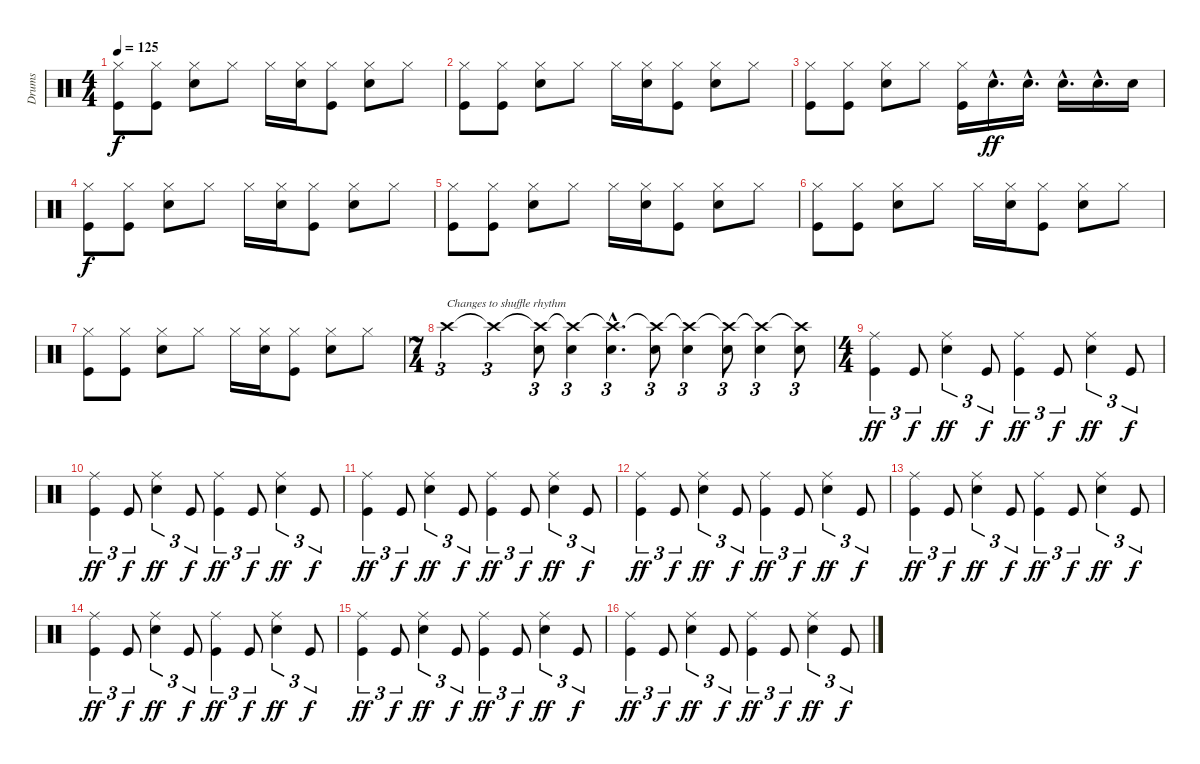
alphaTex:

\track ("Drums" "Drums") {instrument percussion}
\staff {score}
\articulation defaults
\ts (4 4)
\tempo 125
\clef neutral
\ks c
("Hi-Hat (closed)" "Kick (hit)").8{dy f} ("Hi-Hat (closed)" "Kick (hit)").8 ("Hi-Hat (closed)" "Snare (hit) 2").8 "Hi-Hat (closed)".8 "Hi-Hat (closed)".16 ("Hi-Hat (closed)" "Snare (hit) 2").16 ("Hi-Hat (closed)" "Kick (hit)").8 ("Hi-Hat (closed)" "Snare (hit) 2").8 "Hi-Hat (closed)".8 |
("Hi-Hat (closed)" "Kick (hit)").8 ("Hi-Hat (closed)" "Kick (hit)").8 ("Hi-Hat (closed)" "Snare (hit) 2").8 "Hi-Hat (closed)".8 "Hi-Hat (closed)".16 ("Hi-Hat (closed)" "Snare (hit) 2").16 ("Hi-Hat (closed)" "Kick (hit)").8 ("Hi-Hat (closed)" "Snare (hit) 2").8 "Hi-Hat (closed)".8 |
("Hi-Hat (closed)" "Kick (hit)").8 ("Hi-Hat (closed)" "Kick (hit)").8 ("Hi-Hat (closed)" "Snare (hit) 2").8 "Hi-Hat (closed)".8 ("Hi-Hat (closed)" "Kick (hit)").16 "Snare (hit) 2"{hac}.16{d dy ff} "Snare (hit) 2"{hac}.16{d} "Snare (hit) 2"{hac}.16{d} "Snare (hit) 2"{hac}.16{d} "Snare (hit) 2".16 |
("Hi-Hat (closed)" "Kick (hit)").8{dy f} ("Hi-Hat (closed)" "Kick (hit)").8 ("Hi-Hat (closed)" "Snare (hit) 2").8 "Hi-Hat (closed)".8 "Hi-Hat (closed)".16 ("Hi-Hat (closed)" "Snare (hit) 2").16 ("Hi-Hat (closed)" "Kick (hit)").8 ("Hi-Hat (closed)" "Snare (hit) 2").8 "Hi-Hat (closed)".8 |
("Hi-Hat (closed)" "Kick (hit)").8 ("Hi-Hat (closed)" "Kick (hit)").8 ("Hi-Hat (closed)" "Snare (hit) 2").8 "Hi-Hat (closed)".8 "Hi-Hat (closed)".16 ("Hi-Hat (closed)" "Snare (hit) 2").16 ("Hi-Hat (closed)" "Kick (hit)").8 ("Hi-Hat (closed)" "Snare (hit) 2").8 "Hi-Hat (closed)".8 |
("Hi-Hat (closed)" "Kick (hit)").8 ("Hi-Hat (closed)" "Kick (hit)").8 ("Hi-Hat (closed)" "Snare (hit) 2").8 "Hi-Hat (closed)".8 "Hi-Hat (closed)".16 ("Hi-Hat (closed)" "Snare (hit) 2").16 ("Hi-Hat (closed)" "Kick (hit)").8 ("Hi-Hat (closed)" "Snare (hit) 2").8 "Hi-Hat (closed)".8 |
("Hi-Hat (closed)" "Kick (hit)").8 ("Hi-Hat (closed)" "Kick (hit)").8 ("Hi-Hat (closed)" "Snare (hit) 2").8 "Hi-Hat (closed)".8 "Hi-Hat (closed)".16 ("Hi-Hat (closed)" "Snare (hit) 2").16 ("Hi-Hat (closed)" "Kick (hit)").8 ("Hi-Hat (closed)" "Snare (hit) 2").8 "Hi-Hat (closed)".8 |
\ts (7 4)
"Crash high (hit)".2{tu (3 2) txt "Changes to shuffle rhythm"} "Crash high (hit)"{t}.2{tu (3 2)} ("Crash high (hit)"{t} "Snare (hit) 2").8{tu (3 2)} ("Crash high (hit)"{t} "Electric Snare (hit)").4{tu (3 2)} ("Crash high (hit)"{hac t} "Electric Snare (hit)"{hac}).4{d tu (3 2)} ("Crash high (hit)"{t} "Snare (hit) 2").8{tu (3 2)} ("Crash high (hit)"{t} "Electric Snare (hit)").4{tu (3 2)} ("Crash high (hit)"{t} "Snare (hit) 2").8{tu (3 2)} ("Crash high (hit)"{t} "Electric Snare (hit)").4{tu (3 2)} ("Crash high (hit)"{t} "Snare (hit) 2").8{tu (3 2)} |
\ts (4 4)
("Ride (middle)" "Kick (hit)").4{tu (3 2) dy ff} "Kick (hit)".8{tu (3 2) dy f} ("Ride (middle)" "Snare (hit) 2").4{tu (3 2) dy ff} "Kick (hit)".8{tu (3 2) dy f} ("Ride (middle)" "Kick (hit)").4{tu (3 2) dy ff} "Kick (hit)".8{tu (3 2) dy f} ("Ride (middle)" "Snare (hit) 2").4{tu (3 2) dy ff} "Kick (hit)".8{tu (3 2) dy f} |
("Ride (middle)" "Kick (hit)").4{tu (3 2) dy ff} "Kick (hit)".8{tu (3 2) dy f} ("Ride (middle)" "Snare (hit) 2").4{tu (3 2) dy ff} "Kick (hit)".8{tu (3 2) dy f} ("Ride (middle)" "Kick (hit)").4{tu (3 2) dy ff} "Kick (hit)".8{tu (3 2) dy f} ("Ride (middle)" "Snare (hit) 2").4{tu (3 2) dy ff} "Kick (hit)".8{tu (3 2) dy f} |
("Ride (middle)" "Kick (hit)").4{tu (3 2) dy ff} "Kick (hit)".8{tu (3 2) dy f} ("Ride (middle)" "Snare (hit) 2").4{tu (3 2) dy ff} "Kick (hit)".8{tu (3 2) dy f} ("Ride (middle)" "Kick (hit)").4{tu (3 2) dy ff} "Kick (hit)".8{tu (3 2) dy f} ("Ride (middle)" "Snare (hit) 2").4{tu (3 2) dy ff} "Kick (hit)".8{tu (3 2) dy f} |
("Ride (middle)" "Kick (hit)").4{tu (3 2) dy ff} "Kick (hit)".8{tu (3 2) dy f} ("Ride (middle)" "Snare (hit) 2").4{tu (3 2) dy ff} "Kick (hit)".8{tu (3 2) dy f} ("Ride (middle)" "Kick (hit)").4{tu (3 2) dy ff} "Kick (hit)".8{tu (3 2) dy f} ("Ride (middle)" "Snare (hit) 2").4{tu (3 2) dy ff} "Kick (hit)".8{tu (3 2) dy f} |
("Ride (middle)" "Kick (hit)").4{tu (3 2) dy ff} "Kick (hit)".8{tu (3 2) dy f} ("Ride (middle)" "Snare (hit) 2").4{tu (3 2) dy ff} "Kick (hit)".8{tu (3 2) dy f} ("Ride (middle)" "Kick (hit)").4{tu (3 2) dy ff} "Kick (hit)".8{tu (3 2) dy f} ("Ride (middle)" "Snare (hit) 2").4{tu (3 2) dy ff} "Kick (hit)".8{tu (3 2) dy f} |
("Ride (middle)" "Kick (hit)").4{tu (3 2) dy ff} "Kick (hit)".8{tu (3 2) dy f} ("Ride (middle)" "Snare (hit) 2").4{tu (3 2) dy ff} "Kick (hit)".8{tu (3 2) dy f} ("Ride (middle)" "Kick (hit)").4{tu (3 2) dy ff} "Kick (hit)".8{tu (3 2) dy f} ("Ride (middle)" "Snare (hit) 2").4{tu (3 2) dy ff} "Kick (hit)".8{tu (3 2) dy f} |
("Ride (middle)" "Kick (hit)").4{tu (3 2) dy ff} "Kick (hit)".8{tu (3 2) dy f} ("Ride (middle)" "Snare (hit) 2").4{tu (3 2) dy ff} "Kick (hit)".8{tu (3 2) dy f} ("Ride (middle)" "Kick (hit)").4{tu (3 2) dy ff} "Kick (hit)".8{tu (3 2) dy f} ("Ride (middle)" "Snare (hit) 2").4{tu (3 2) dy ff} "Kick (hit)".8{tu (3 2) dy f} |
("Ride (middle)" "Kick (hit)").4{tu (3 2) dy ff} "Kick (hit)".8{tu (3 2) dy f} ("Ride (middle)" "Snare (hit) 2").4{tu (3 2) dy ff} "Kick (hit)".8{tu (3 2) dy f} ("Ride (middle)" "Kick (hit)").4{tu (3 2) dy ff} "Kick (hit)".8{tu (3 2) dy f} ("Ride (middle)" "Snare (hit) 2").4{tu (3 2) dy ff} "Kick (hit)".8{tu (3 2) dy f}
